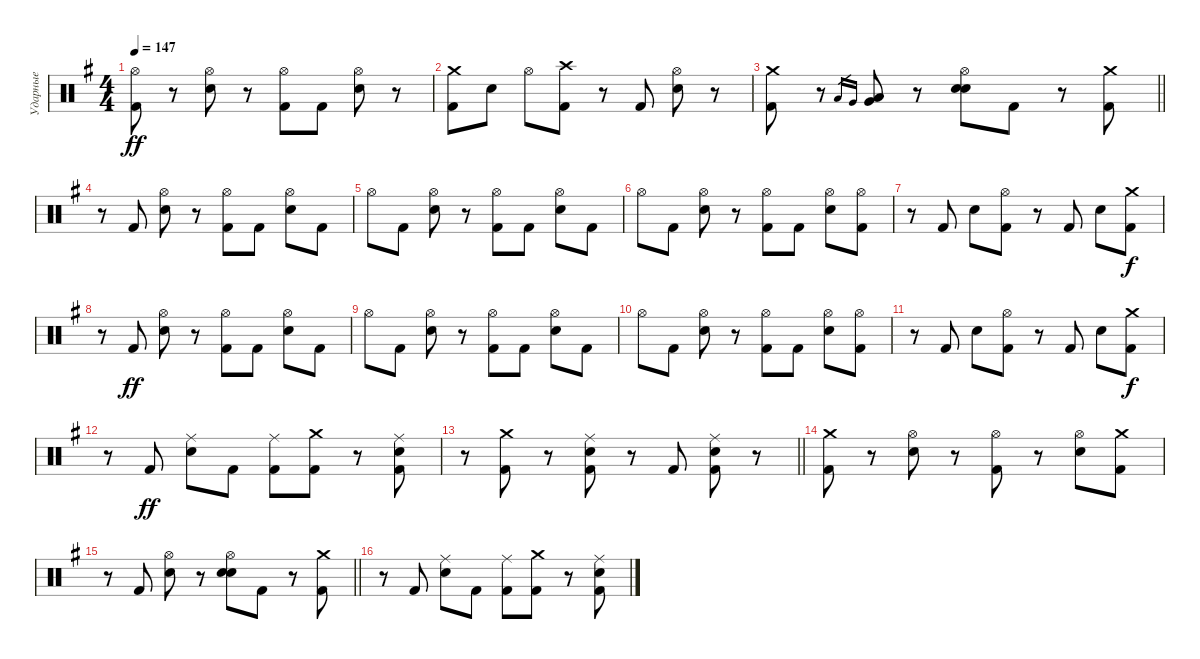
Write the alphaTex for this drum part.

\track ("Ударные" "Ударные") {instrument percussion}
\staff {score}
\articulation defaults
\ts (4 4)
\tempo 147
\clef neutral
\ks eminor
("Kick (hit) 2" "Hi-Hat (open)").8{dy ff} r.8 ("Electric Snare (hit)" "Hi-Hat (open)").8 r.8 ("Kick (hit) 2" "Hi-Hat (open)").8 "Kick (hit) 2".8 ("Electric Snare (hit)" "Hi-Hat (open)").8 r.8 |
("Kick (hit) 2" "Crash medium (hit)").8 "Electric Snare (hit)".8 "Hi-Hat (open)".8 ("Kick (hit) 2" "Crash high (hit)").8 r.8 "Kick (hit) 2".8 ("Electric Snare (hit)" "Hi-Hat (open)").8 r.8 |
\barLineRight lightlight
("Kick (hit) 2" "Crash medium (hit)").8 r.8 "Low Tom (hit)".16{gr} "Very Low Tom (hit)".16{gr} ("Low Tom (hit)" "Very Low Tom (hit)").8 r.8 ("Electric Snare (hit)" "Electric Snare (hit)" "Hi-Hat (open)").8 "Kick (hit) 2".8 r.8 ("Kick (hit) 2" "Crash medium (hit)").8 |
r.8 "Kick (hit) 2".8 ("Electric Snare (hit)" "Hi-Hat (open)").8 r.8 ("Kick (hit) 2" "Hi-Hat (open)").8 "Kick (hit) 2".8 ("Electric Snare (hit)" "Hi-Hat (open)").8 "Kick (hit) 2".8 |
"Hi-Hat (open)".8 "Kick (hit) 2".8 ("Electric Snare (hit)" "Hi-Hat (open)").8 r.8 ("Kick (hit) 2" "Hi-Hat (open)").8 "Kick (hit) 2".8 ("Electric Snare (hit)" "Hi-Hat (open)").8 "Kick (hit) 2".8 |
"Hi-Hat (open)".8 "Kick (hit) 2".8 ("Electric Snare (hit)" "Hi-Hat (open)").8 r.8 ("Kick (hit) 2" "Hi-Hat (open)").8 "Kick (hit) 2".8 ("Electric Snare (hit)" "Hi-Hat (open)").8 ("Kick (hit) 2" "Hi-Hat (open)").8 |
r.8 "Kick (hit) 2".8 "Electric Snare (hit)".8 ("Kick (hit) 2" "Hi-Hat (open)").8 r.8 "Kick (hit) 2".8 "Electric Snare (hit)".8 ("Kick (hit) 2" "Crash medium (hit)").8{dy f} |
r.8 "Kick (hit) 2".8{dy ff} ("Electric Snare (hit)" "Hi-Hat (open)").8 r.8 ("Kick (hit) 2" "Hi-Hat (open)").8 "Kick (hit) 2".8 ("Electric Snare (hit)" "Hi-Hat (open)").8 "Kick (hit) 2".8 |
"Hi-Hat (open)".8 "Kick (hit) 2".8 ("Electric Snare (hit)" "Hi-Hat (open)").8 r.8 ("Kick (hit) 2" "Hi-Hat (open)").8 "Kick (hit) 2".8 ("Electric Snare (hit)" "Hi-Hat (open)").8 "Kick (hit) 2".8 |
"Hi-Hat (open)".8 "Kick (hit) 2".8 ("Electric Snare (hit)" "Hi-Hat (open)").8 r.8 ("Kick (hit) 2" "Hi-Hat (open)").8 "Kick (hit) 2".8 ("Electric Snare (hit)" "Hi-Hat (open)").8 ("Kick (hit) 2" "Hi-Hat (open)").8 |
r.8 "Kick (hit) 2".8 "Electric Snare (hit)".8 ("Kick (hit) 2" "Hi-Hat (open)").8 r.8 "Kick (hit) 2".8 "Electric Snare (hit)".8 ("Kick (hit) 2" "Crash medium (hit)").8{dy f} |
r.8 "Kick (hit) 2".8{dy ff} ("Electric Snare (hit)" "Ride (middle)").8 "Kick (hit) 2".8 ("Kick (hit) 2" "Ride (middle)").8 ("Kick (hit) 2" "Crash medium (hit)").8 r.8 ("Kick (hit) 2" "Electric Snare (hit)" "Ride (middle)").8 |
\barLineRight lightlight
r.8 ("Kick (hit) 2" "Crash medium (hit)").8 r.8 ("Kick (hit) 2" "Electric Snare (hit)" "Ride (middle)").8 r.8 "Kick (hit) 2".8 ("Kick (hit) 2" "Electric Snare (hit)" "Ride (middle)").8 r.8 |
("Kick (hit) 2" "Crash medium (hit)").8 r.8 ("Electric Snare (hit)" "Hi-Hat (open)").8 r.8 ("Kick (hit) 2" "Hi-Hat (open)").8 r.8 ("Electric Snare (hit)" "Hi-Hat (open)").8 ("Kick (hit) 2" "Crash medium (hit)").8 |
\barLineRight lightlight
r.8 "Kick (hit) 2".8 ("Electric Snare (hit)" "Hi-Hat (open)").8 r.8 ("Snare (hit) 2" "Electric Snare (hit)" "Hi-Hat (open)").8 "Kick (hit) 2".8 r.8 ("Kick (hit) 2" "Crash medium (hit)").8 |
r.8 "Kick (hit) 2".8 ("Electric Snare (hit)" "Ride (middle)").8 "Kick (hit) 2".8 ("Kick (hit) 2" "Ride (middle)").8 ("Kick (hit) 2" "Crash medium (hit)").8 r.8 ("Kick (hit) 2" "Electric Snare (hit)" "Ride (middle)").8
